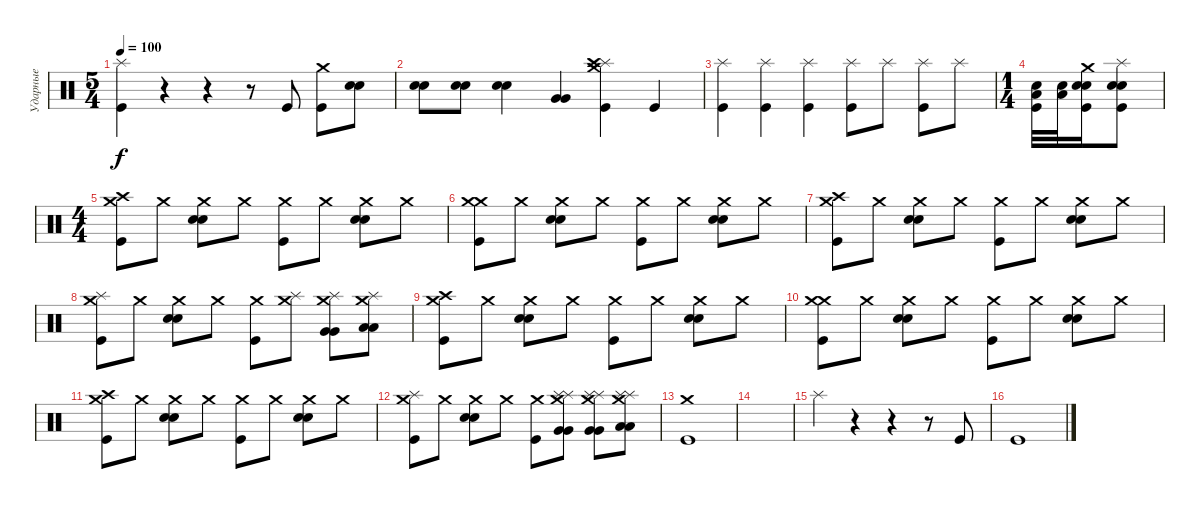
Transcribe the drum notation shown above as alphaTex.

\track ("Ударные" "Ударные") {instrument percussion}
\staff {score}
\articulation defaults
\ts (5 4)
\tempo 100
\clef neutral
\ks c
("Splash (hit)" "Kick (hit)").4{dy f} r.4 r.4 r.8 "Kick (hit)".8 ("Crash medium (hit)" "Kick (hit)").8 ("Electric Snare (hit)" "Electric Snare (hit)").8 |
("Snare (hit) 2" "Snare (hit) 2").8 ("Electric Snare (hit)" "Electric Snare (hit)").8 ("Snare (hit) 2" "Snare (hit) 2").4 ("Very Low Tom (hit)" "Very Low Tom (hit)").4 ("Crash medium (hit)" "Splash (hit)" "Crash high (hit)" "Kick (hit)").4 "Kick (hit)".4 |
("Splash (hit)" "Kick (hit)").4 ("Splash (hit)" "Kick (hit)").4 ("Splash (hit)" "Kick (hit)").4 ("Splash (hit)" "Kick (hit)").8 "Splash (hit)".8 ("Splash (hit)" "Kick (hit)").8 "Splash (hit)".8 |
\ts (1 4)
("Low Floor Tom (hit)" "Snare (hit) 2" "Kick (hit)").32 ("Low Floor Tom (hit)" "Snare (hit) 2").32 ("Crash medium (hit)" "Snare (hit) 2" "Snare (hit) 2" "Kick (hit)").16 ("Splash (hit)" "Electric Snare (hit)" "Electric Snare (hit)" "Kick (hit)").8 |
\ts (4 4)
("Crash medium (hit)" "Crash high (hit)" "Kick (hit)").8 "Crash medium (hit)".8 ("Crash medium (hit)" "Snare (hit) 2" "Snare (hit) 2").8 "Crash medium (hit)".8 ("Crash medium (hit)" "Kick (hit)").8 "Crash medium (hit)".8 ("Crash medium (hit)" "Snare (hit) 2" "Snare (hit) 2").8 "Crash medium (hit)".8 |
("Crash medium (hit)" "Crash medium (hit)" "Kick (hit)").8 "Crash medium (hit)".8 ("Crash medium (hit)" "Snare (hit) 2" "Snare (hit) 2").8 "Crash medium (hit)".8 ("Crash medium (hit)" "Kick (hit)").8 "Crash medium (hit)".8 ("Crash medium (hit)" "Snare (hit) 2" "Snare (hit) 2").8 "Crash medium (hit)".8 |
("Crash medium (hit)" "Crash high (hit)" "Kick (hit)").8 "Crash medium (hit)".8 ("Crash medium (hit)" "Snare (hit) 2" "Snare (hit) 2").8 "Crash medium (hit)".8 ("Crash medium (hit)" "Kick (hit)").8 "Crash medium (hit)".8 ("Crash medium (hit)" "Snare (hit) 2" "Snare (hit) 2").8 "Crash medium (hit)".8 |
("Crash medium (hit)" "Splash (hit)" "Kick (hit)").8 "Crash medium (hit)".8 ("Crash medium (hit)" "Snare (hit) 2" "Snare (hit) 2").8 "Crash medium (hit)".8 ("Crash medium (hit)" "Kick (hit)").8 ("Crash medium (hit)" "Splash (hit)").8 ("Crash medium (hit)" "Splash (hit)" "Very Low Tom (hit)" "Very Low Tom (hit)").8 ("Crash medium (hit)" "Splash (hit)" "Low Floor Tom (hit)" "Low Floor Tom (hit)").8 |
("Crash medium (hit)" "Crash high (hit)" "Kick (hit)").8 "Crash medium (hit)".8 ("Crash medium (hit)" "Snare (hit) 2" "Snare (hit) 2").8 "Crash medium (hit)".8 ("Crash medium (hit)" "Kick (hit)").8 "Crash medium (hit)".8 ("Crash medium (hit)" "Snare (hit) 2" "Snare (hit) 2").8 "Crash medium (hit)".8 |
("Crash medium (hit)" "Crash medium (hit)" "Kick (hit)").8 "Crash medium (hit)".8 ("Crash medium (hit)" "Snare (hit) 2" "Snare (hit) 2").8 "Crash medium (hit)".8 ("Crash medium (hit)" "Kick (hit)").8 "Crash medium (hit)".8 ("Crash medium (hit)" "Snare (hit) 2" "Snare (hit) 2").8 "Crash medium (hit)".8 |
("Crash medium (hit)" "Crash high (hit)" "Kick (hit)").8 "Crash medium (hit)".8 ("Crash medium (hit)" "Snare (hit) 2" "Snare (hit) 2").8 "Crash medium (hit)".8 ("Crash medium (hit)" "Kick (hit)").8 "Crash medium (hit)".8 ("Crash medium (hit)" "Snare (hit) 2" "Snare (hit) 2").8 "Crash medium (hit)".8 |
("Crash medium (hit)" "Splash (hit)" "Kick (hit)").8 "Crash medium (hit)".8 ("Crash medium (hit)" "Snare (hit) 2" "Snare (hit) 2").8 "Crash medium (hit)".8 ("Crash medium (hit)" "Kick (hit)").8 ("Crash medium (hit)" "Splash (hit)" "Splash (hit)" "Very Low Tom (hit)" "Very Low Tom (hit)").8 ("Crash medium (hit)" "Splash (hit)" "Splash (hit)" "Very Low Tom (hit)" "Very Low Tom (hit)").8 ("Crash medium (hit)" "Splash (hit)" "Splash (hit)" "Low Floor Tom (hit)" "Low Floor Tom (hit)").8 |
("Crash medium (hit)" "Kick (hit)").1 |
|
"Splash (hit)".4 r.4 r.4 r.8 "Kick (hit)".8 |
"Kick (hit)".1
